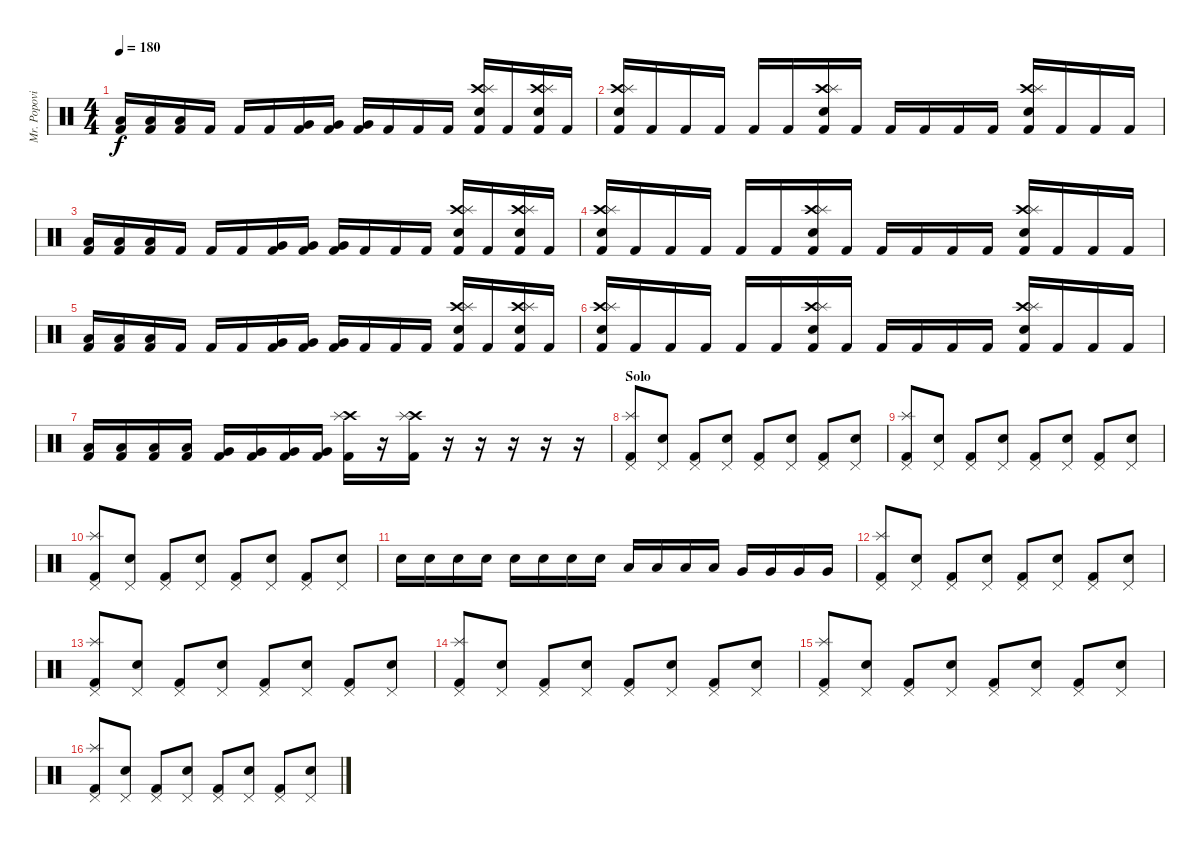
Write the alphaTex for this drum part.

\track ("Mr. Popovic" "Mr. Popovi") {instrument percussion}
\staff {score}
\articulation defaults
\ts (4 4)
\tempo 180
\clef neutral
\ks c
("Low Tom (hit)" "Kick (hit) 2").16{dy f} ("Low Tom (hit)" "Kick (hit) 2").16 ("Low Tom (hit)" "Kick (hit) 2").16 "Kick (hit) 2".16 "Kick (hit) 2".16 "Kick (hit) 2".16 ("Very Low Tom (hit)" "Kick (hit) 2").16 ("Very Low Tom (hit)" "Kick (hit) 2").16 ("Very Low Tom (hit)" "Kick (hit) 2").16 "Kick (hit) 2".16 "Kick (hit) 2".16 "Kick (hit) 2".16 ("Crash high (hit)" "Splash (hit)" "Electric Snare (hit)" "Kick (hit) 2").16 "Kick (hit) 2".16 ("Crash high (hit)" "Splash (hit)" "Electric Snare (hit)" "Kick (hit) 2").16 "Kick (hit) 2".16 |
("Crash high (hit)" "Splash (hit)" "Electric Snare (hit)" "Kick (hit) 2").16 "Kick (hit) 2".16 "Kick (hit) 2".16 "Kick (hit) 2".16 "Kick (hit) 2".16 "Kick (hit) 2".16 ("Crash high (hit)" "Splash (hit)" "Electric Snare (hit)" "Kick (hit) 2").16 "Kick (hit) 2".16 "Kick (hit) 2".16 "Kick (hit) 2".16 "Kick (hit) 2".16 "Kick (hit) 2".16 ("Crash high (hit)" "Splash (hit)" "Electric Snare (hit)" "Kick (hit) 2").16 "Kick (hit) 2".16 "Kick (hit) 2".16 "Kick (hit) 2".16 |
("Low Tom (hit)" "Kick (hit) 2").16 ("Low Tom (hit)" "Kick (hit) 2").16 ("Low Tom (hit)" "Kick (hit) 2").16 "Kick (hit) 2".16 "Kick (hit) 2".16 "Kick (hit) 2".16 ("Very Low Tom (hit)" "Kick (hit) 2").16 ("Very Low Tom (hit)" "Kick (hit) 2").16 ("Very Low Tom (hit)" "Kick (hit) 2").16 "Kick (hit) 2".16 "Kick (hit) 2".16 "Kick (hit) 2".16 ("Crash high (hit)" "Splash (hit)" "Electric Snare (hit)" "Kick (hit) 2").16 "Kick (hit) 2".16 ("Crash high (hit)" "Splash (hit)" "Electric Snare (hit)" "Kick (hit) 2").16 "Kick (hit) 2".16 |
("Crash high (hit)" "Splash (hit)" "Electric Snare (hit)" "Kick (hit) 2").16 "Kick (hit) 2".16 "Kick (hit) 2".16 "Kick (hit) 2".16 "Kick (hit) 2".16 "Kick (hit) 2".16 ("Crash high (hit)" "Splash (hit)" "Electric Snare (hit)" "Kick (hit) 2").16 "Kick (hit) 2".16 "Kick (hit) 2".16 "Kick (hit) 2".16 "Kick (hit) 2".16 "Kick (hit) 2".16 ("Crash high (hit)" "Splash (hit)" "Electric Snare (hit)" "Kick (hit) 2").16 "Kick (hit) 2".16 "Kick (hit) 2".16 "Kick (hit) 2".16 |
("Low Tom (hit)" "Kick (hit) 2").16 ("Low Tom (hit)" "Kick (hit) 2").16 ("Low Tom (hit)" "Kick (hit) 2").16 "Kick (hit) 2".16 "Kick (hit) 2".16 "Kick (hit) 2".16 ("Very Low Tom (hit)" "Kick (hit) 2").16 ("Very Low Tom (hit)" "Kick (hit) 2").16 ("Very Low Tom (hit)" "Kick (hit) 2").16 "Kick (hit) 2".16 "Kick (hit) 2".16 "Kick (hit) 2".16 ("Crash high (hit)" "Splash (hit)" "Electric Snare (hit)" "Kick (hit) 2").16 "Kick (hit) 2".16 ("Crash high (hit)" "Splash (hit)" "Electric Snare (hit)" "Kick (hit) 2").16 "Kick (hit) 2".16 |
("Crash high (hit)" "Splash (hit)" "Electric Snare (hit)" "Kick (hit) 2").16 "Kick (hit) 2".16 "Kick (hit) 2".16 "Kick (hit) 2".16 "Kick (hit) 2".16 "Kick (hit) 2".16 ("Crash high (hit)" "Splash (hit)" "Electric Snare (hit)" "Kick (hit) 2").16 "Kick (hit) 2".16 "Kick (hit) 2".16 "Kick (hit) 2".16 "Kick (hit) 2".16 "Kick (hit) 2".16 ("Crash high (hit)" "Splash (hit)" "Electric Snare (hit)" "Kick (hit) 2").16 "Kick (hit) 2".16 "Kick (hit) 2".16 "Kick (hit) 2".16 |
("Low Tom (hit)" "Kick (hit) 2").16 ("Low Tom (hit)" "Kick (hit) 2").16 ("Low Tom (hit)" "Kick (hit) 2").16 ("Low Tom (hit)" "Kick (hit) 2").16 ("Very Low Tom (hit)" "Kick (hit) 2").16 ("Very Low Tom (hit)" "Kick (hit) 2").16 ("Very Low Tom (hit)" "Kick (hit) 2").16 ("Very Low Tom (hit)" "Kick (hit) 2").16 ("Crash high (hit)" "Splash (hit)" "Kick (hit) 2").16 r.16 ("Crash high (hit)" "Splash (hit)" "Kick (hit) 2").16 r.16 r.16 r.16 r.16 r.16 |
\section ("" "Solo")
("Splash (hit)" "Pedal Hi-Hat (hit)" "Kick (hit) 2").8 ("Pedal Hi-Hat (hit)" "Electric Snare (hit)").8 ("Pedal Hi-Hat (hit)" "Kick (hit) 2").8 ("Pedal Hi-Hat (hit)" "Electric Snare (hit)").8 ("Pedal Hi-Hat (hit)" "Kick (hit) 2").8 ("Pedal Hi-Hat (hit)" "Electric Snare (hit)").8 ("Pedal Hi-Hat (hit)" "Kick (hit) 2").8 ("Pedal Hi-Hat (hit)" "Electric Snare (hit)").8 |
("Splash (hit)" "Pedal Hi-Hat (hit)" "Kick (hit) 2").8 ("Pedal Hi-Hat (hit)" "Electric Snare (hit)").8 ("Pedal Hi-Hat (hit)" "Kick (hit) 2").8 ("Pedal Hi-Hat (hit)" "Electric Snare (hit)").8 ("Pedal Hi-Hat (hit)" "Kick (hit) 2").8 ("Pedal Hi-Hat (hit)" "Electric Snare (hit)").8 ("Pedal Hi-Hat (hit)" "Kick (hit) 2").8 ("Pedal Hi-Hat (hit)" "Electric Snare (hit)").8 |
("Splash (hit)" "Pedal Hi-Hat (hit)" "Kick (hit) 2").8 ("Pedal Hi-Hat (hit)" "Electric Snare (hit)").8 ("Pedal Hi-Hat (hit)" "Kick (hit) 2").8 ("Pedal Hi-Hat (hit)" "Electric Snare (hit)").8 ("Pedal Hi-Hat (hit)" "Kick (hit) 2").8 ("Pedal Hi-Hat (hit)" "Electric Snare (hit)").8 ("Pedal Hi-Hat (hit)" "Kick (hit) 2").8 ("Pedal Hi-Hat (hit)" "Electric Snare (hit)").8 |
"Electric Snare (hit)".16 "Electric Snare (hit)".16 "Electric Snare (hit)".16 "Electric Snare (hit)".16 "Electric Snare (hit)".16 "Electric Snare (hit)".16 "Electric Snare (hit)".16 "Electric Snare (hit)".16 "Low Tom (hit)".16 "Low Tom (hit)".16 "Low Tom (hit)".16 "Low Tom (hit)".16 "Very Low Tom (hit)".16 "Very Low Tom (hit)".16 "Very Low Tom (hit)".16 "Very Low Tom (hit)".16 |
("Splash (hit)" "Pedal Hi-Hat (hit)" "Kick (hit) 2").8 ("Pedal Hi-Hat (hit)" "Electric Snare (hit)").8 ("Pedal Hi-Hat (hit)" "Kick (hit) 2").8 ("Pedal Hi-Hat (hit)" "Electric Snare (hit)").8 ("Pedal Hi-Hat (hit)" "Kick (hit) 2").8 ("Pedal Hi-Hat (hit)" "Electric Snare (hit)").8 ("Pedal Hi-Hat (hit)" "Kick (hit) 2").8 ("Pedal Hi-Hat (hit)" "Electric Snare (hit)").8 |
("Splash (hit)" "Pedal Hi-Hat (hit)" "Kick (hit) 2").8 ("Pedal Hi-Hat (hit)" "Electric Snare (hit)").8 ("Pedal Hi-Hat (hit)" "Kick (hit) 2").8 ("Pedal Hi-Hat (hit)" "Electric Snare (hit)").8 ("Pedal Hi-Hat (hit)" "Kick (hit) 2").8 ("Pedal Hi-Hat (hit)" "Electric Snare (hit)").8 ("Pedal Hi-Hat (hit)" "Kick (hit) 2").8 ("Pedal Hi-Hat (hit)" "Electric Snare (hit)").8 |
("Splash (hit)" "Pedal Hi-Hat (hit)" "Kick (hit) 2").8 ("Pedal Hi-Hat (hit)" "Electric Snare (hit)").8 ("Pedal Hi-Hat (hit)" "Kick (hit) 2").8 ("Pedal Hi-Hat (hit)" "Electric Snare (hit)").8 ("Pedal Hi-Hat (hit)" "Kick (hit) 2").8 ("Pedal Hi-Hat (hit)" "Electric Snare (hit)").8 ("Pedal Hi-Hat (hit)" "Kick (hit) 2").8 ("Pedal Hi-Hat (hit)" "Electric Snare (hit)").8 |
("Splash (hit)" "Pedal Hi-Hat (hit)" "Kick (hit) 2").8 ("Pedal Hi-Hat (hit)" "Electric Snare (hit)").8 ("Pedal Hi-Hat (hit)" "Kick (hit) 2").8 ("Pedal Hi-Hat (hit)" "Electric Snare (hit)").8 ("Pedal Hi-Hat (hit)" "Kick (hit) 2").8 ("Pedal Hi-Hat (hit)" "Electric Snare (hit)").8 ("Pedal Hi-Hat (hit)" "Kick (hit) 2").8 ("Pedal Hi-Hat (hit)" "Electric Snare (hit)").8 |
("Splash (hit)" "Pedal Hi-Hat (hit)" "Kick (hit) 2").8 ("Pedal Hi-Hat (hit)" "Electric Snare (hit)").8 ("Pedal Hi-Hat (hit)" "Kick (hit) 2").8 ("Pedal Hi-Hat (hit)" "Electric Snare (hit)").8 ("Pedal Hi-Hat (hit)" "Kick (hit) 2").8 ("Pedal Hi-Hat (hit)" "Electric Snare (hit)").8 ("Pedal Hi-Hat (hit)" "Kick (hit) 2").8 ("Pedal Hi-Hat (hit)" "Electric Snare (hit)").8
